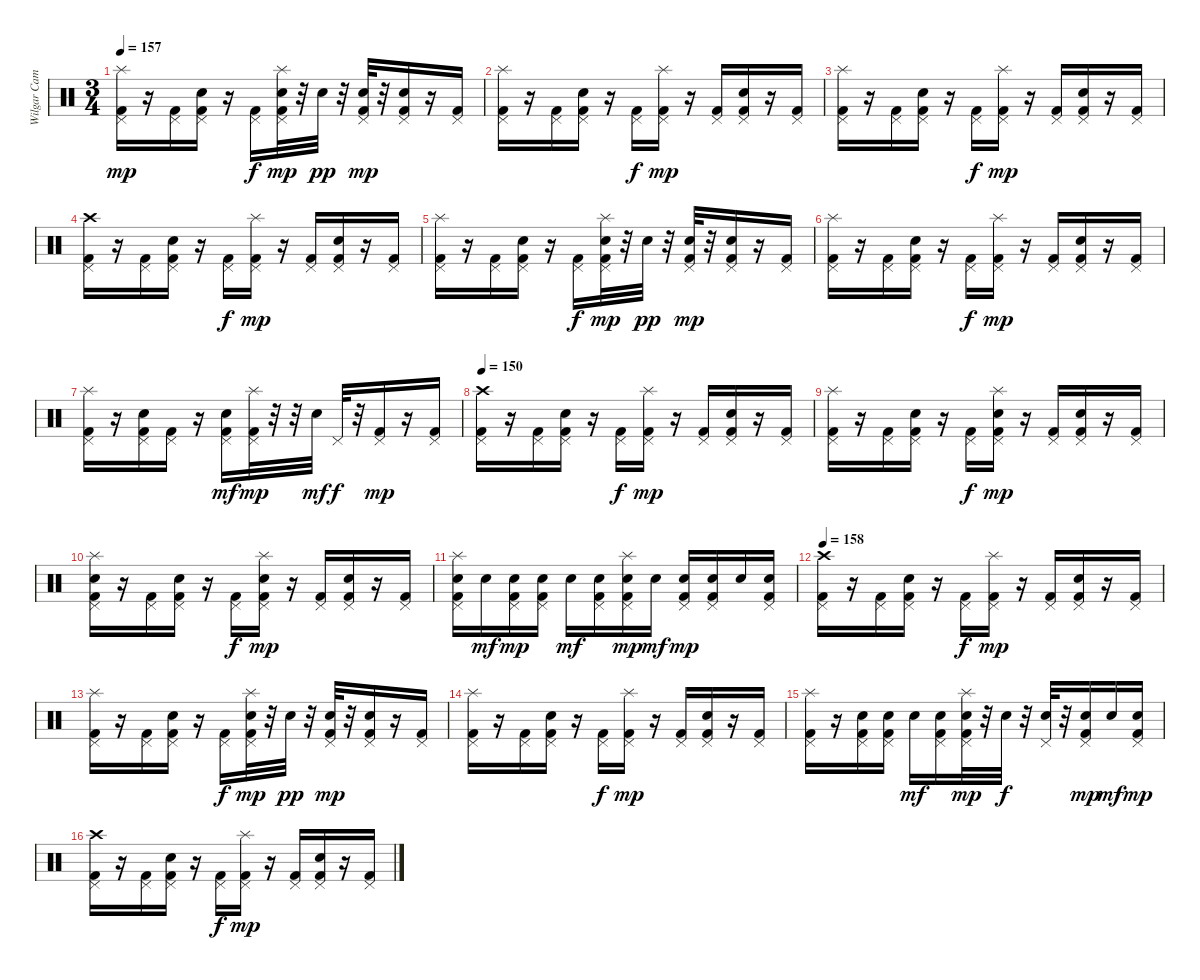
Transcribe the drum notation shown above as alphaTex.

\track ("Wilgar Campbell" "Wilgar Cam") {instrument percussion}
\staff {score}
\articulation defaults
\ts (3 4)
\tempo 157
\clef neutral
\ks c
("Splash (hit)" "Pedal Hi-Hat (hit)" "Kick (hit) 2").16{dy mp} r.16 ("Pedal Hi-Hat (hit)" "Kick (hit) 2").16 ("Snare (hit) 2" "Pedal Hi-Hat (hit)" "Kick (hit) 2").16 r.16 ("Pedal Hi-Hat (hit)" "Kick (hit) 2").16{dy f} ("Splash (hit)" "Pedal Hi-Hat (hit)" "Electric Snare (hit)" "Kick (hit) 2").32{dy mp} r.32 "Electric Snare (hit)".32{dy pp} r.32 ("Pedal Hi-Hat (hit)" "Electric Snare (hit)" "Kick (hit) 2").32{dy mp} r.32 ("Snare (hit) 2" "Pedal Hi-Hat (hit)" "Kick (hit) 2").16 r.16 ("Pedal Hi-Hat (hit)" "Kick (hit) 2").16 |
("Splash (hit)" "Pedal Hi-Hat (hit)" "Kick (hit) 2").16 r.16 ("Pedal Hi-Hat (hit)" "Kick (hit) 2").16 ("Snare (hit) 2" "Pedal Hi-Hat (hit)" "Kick (hit) 2").16 r.16 ("Pedal Hi-Hat (hit)" "Kick (hit) 2").16{dy f} ("Splash (hit)" "Pedal Hi-Hat (hit)" "Kick (hit) 2").16{dy mp} r.16 ("Pedal Hi-Hat (hit)" "Kick (hit) 2").16 ("Snare (hit) 2" "Pedal Hi-Hat (hit)" "Kick (hit) 2").16 r.16 ("Pedal Hi-Hat (hit)" "Kick (hit) 2").16 |
("Splash (hit)" "Pedal Hi-Hat (hit)" "Kick (hit) 2").16 r.16 ("Pedal Hi-Hat (hit)" "Kick (hit) 2").16 ("Snare (hit) 2" "Pedal Hi-Hat (hit)" "Kick (hit) 2").16 r.16 ("Pedal Hi-Hat (hit)" "Kick (hit) 2").16{dy f} ("Splash (hit)" "Pedal Hi-Hat (hit)" "Kick (hit) 2").16{dy mp} r.16 ("Pedal Hi-Hat (hit)" "Kick (hit) 2").16 ("Snare (hit) 2" "Pedal Hi-Hat (hit)" "Kick (hit) 2").16 r.16 ("Pedal Hi-Hat (hit)" "Kick (hit) 2").16 |
("Crash high (hit)" "Pedal Hi-Hat (hit)" "Kick (hit) 2").16 r.16 ("Pedal Hi-Hat (hit)" "Kick (hit) 2").16 ("Snare (hit) 2" "Pedal Hi-Hat (hit)" "Kick (hit) 2").16 r.16 ("Pedal Hi-Hat (hit)" "Kick (hit) 2").16{dy f} ("Splash (hit)" "Pedal Hi-Hat (hit)" "Kick (hit) 2").16{dy mp} r.16 ("Pedal Hi-Hat (hit)" "Kick (hit) 2").16 ("Snare (hit) 2" "Pedal Hi-Hat (hit)" "Kick (hit) 2").16 r.16 ("Pedal Hi-Hat (hit)" "Kick (hit) 2").16 |
("Splash (hit)" "Pedal Hi-Hat (hit)" "Kick (hit) 2").16 r.16 ("Pedal Hi-Hat (hit)" "Kick (hit) 2").16 ("Snare (hit) 2" "Pedal Hi-Hat (hit)" "Kick (hit) 2").16 r.16 ("Pedal Hi-Hat (hit)" "Kick (hit) 2").16{dy f} ("Splash (hit)" "Pedal Hi-Hat (hit)" "Electric Snare (hit)" "Kick (hit) 2").32{dy mp} r.32 "Electric Snare (hit)".32{dy pp} r.32 ("Pedal Hi-Hat (hit)" "Electric Snare (hit)" "Kick (hit) 2").32{dy mp} r.32 ("Snare (hit) 2" "Pedal Hi-Hat (hit)" "Kick (hit) 2").16 r.16 ("Pedal Hi-Hat (hit)" "Kick (hit) 2").16 |
("Splash (hit)" "Pedal Hi-Hat (hit)" "Kick (hit) 2").16 r.16 ("Pedal Hi-Hat (hit)" "Kick (hit) 2").16 ("Snare (hit) 2" "Pedal Hi-Hat (hit)" "Kick (hit) 2").16 r.16 ("Pedal Hi-Hat (hit)" "Kick (hit) 2").16{dy f} ("Splash (hit)" "Pedal Hi-Hat (hit)" "Kick (hit) 2").16{dy mp} r.16 ("Pedal Hi-Hat (hit)" "Kick (hit) 2").16 ("Snare (hit) 2" "Pedal Hi-Hat (hit)" "Kick (hit) 2").16 r.16 ("Pedal Hi-Hat (hit)" "Kick (hit) 2").16 |
("Splash (hit)" "Pedal Hi-Hat (hit)" "Kick (hit) 2").16 r.16 ("Pedal Hi-Hat (hit)" "Electric Snare (hit)" "Kick (hit) 2").16 ("Pedal Hi-Hat (hit)" "Kick (hit) 2").16 r.16 ("Pedal Hi-Hat (hit)" "Electric Snare (hit)" "Kick (hit) 2").16{dy mf} ("Splash (hit)" "Pedal Hi-Hat (hit)" "Kick (hit) 2").32{dy mp} r.32 r.32 "Electric Snare (hit)".32{dy mf} "Pedal Hi-Hat (hit)".32{dy f} r.32 ("Pedal Hi-Hat (hit)" "Kick (hit) 2").16{dy mp} r.16 ("Pedal Hi-Hat (hit)" "Kick (hit) 2").16 |
\tempo 150
("Crash high (hit)" "Pedal Hi-Hat (hit)" "Kick (hit) 2").16 r.16 ("Pedal Hi-Hat (hit)" "Kick (hit) 2").16 ("Snare (hit) 2" "Pedal Hi-Hat (hit)" "Kick (hit) 2").16 r.16 ("Pedal Hi-Hat (hit)" "Kick (hit) 2").16{dy f} ("Splash (hit)" "Pedal Hi-Hat (hit)" "Kick (hit) 2").16{dy mp} r.16 ("Pedal Hi-Hat (hit)" "Kick (hit) 2").16 ("Snare (hit) 2" "Pedal Hi-Hat (hit)" "Kick (hit) 2").16 r.16 ("Pedal Hi-Hat (hit)" "Kick (hit) 2").16 |
("Splash (hit)" "Pedal Hi-Hat (hit)" "Kick (hit) 2").16 r.16 ("Pedal Hi-Hat (hit)" "Kick (hit) 2").16 ("Snare (hit) 2" "Pedal Hi-Hat (hit)" "Kick (hit) 2").16 r.16 ("Pedal Hi-Hat (hit)" "Kick (hit) 2").16{dy f} ("Splash (hit)" "Snare (hit) 2" "Pedal Hi-Hat (hit)" "Kick (hit) 2").16{dy mp} r.16 ("Pedal Hi-Hat (hit)" "Kick (hit) 2").16 ("Snare (hit) 2" "Pedal Hi-Hat (hit)" "Kick (hit) 2").16 r.16 ("Pedal Hi-Hat (hit)" "Kick (hit) 2").16 |
("Splash (hit)" "Snare (hit) 2" "Pedal Hi-Hat (hit)" "Kick (hit) 2").16 r.16 ("Pedal Hi-Hat (hit)" "Kick (hit) 2").16 ("Snare (hit) 2" "Pedal Hi-Hat (hit)" "Kick (hit) 2").16 r.16 ("Pedal Hi-Hat (hit)" "Kick (hit) 2").16{dy f} ("Splash (hit)" "Snare (hit) 2" "Pedal Hi-Hat (hit)" "Kick (hit) 2").16{dy mp} r.16 ("Pedal Hi-Hat (hit)" "Kick (hit) 2").16 ("Snare (hit) 2" "Pedal Hi-Hat (hit)" "Kick (hit) 2").16 r.16 ("Pedal Hi-Hat (hit)" "Kick (hit) 2").16 |
("Splash (hit)" "Snare (hit) 2" "Pedal Hi-Hat (hit)" "Kick (hit) 2").16 "Snare (hit) 2".16{dy mf} ("Snare (hit) 2" "Pedal Hi-Hat (hit)" "Kick (hit) 2").16{dy mp} ("Electric Snare (hit)" "Pedal Hi-Hat (hit)" "Kick (hit) 2").16 "Electric Snare (hit)".16{dy mf} ("Electric Snare (hit)" "Pedal Hi-Hat (hit)" "Kick (hit) 2").16 ("Splash (hit)" "Snare (hit) 2" "Pedal Hi-Hat (hit)" "Kick (hit) 2").16{dy mp} "Snare (hit) 2".16{dy mf} ("Snare (hit) 2" "Pedal Hi-Hat (hit)" "Kick (hit) 2").16{dy mp} ("Snare (hit) 2" "Pedal Hi-Hat (hit)" "Kick (hit) 2").16 "Snare (hit) 2".16 ("Snare (hit) 2" "Pedal Hi-Hat (hit)" "Kick (hit) 2").16 |
\tempo 158
("Crash high (hit)" "Pedal Hi-Hat (hit)" "Kick (hit) 2").16 r.16 ("Pedal Hi-Hat (hit)" "Kick (hit) 2").16 ("Snare (hit) 2" "Pedal Hi-Hat (hit)" "Kick (hit) 2").16 r.16 ("Pedal Hi-Hat (hit)" "Kick (hit) 2").16{dy f} ("Splash (hit)" "Pedal Hi-Hat (hit)" "Kick (hit) 2").16{dy mp} r.16 ("Pedal Hi-Hat (hit)" "Kick (hit) 2").16 ("Snare (hit) 2" "Pedal Hi-Hat (hit)" "Kick (hit) 2").16 r.16 ("Pedal Hi-Hat (hit)" "Kick (hit) 2").16 |
("Splash (hit)" "Pedal Hi-Hat (hit)" "Kick (hit) 2").16 r.16 ("Pedal Hi-Hat (hit)" "Kick (hit) 2").16 ("Snare (hit) 2" "Pedal Hi-Hat (hit)" "Kick (hit) 2").16 r.16 ("Pedal Hi-Hat (hit)" "Kick (hit) 2").16{dy f} ("Splash (hit)" "Pedal Hi-Hat (hit)" "Electric Snare (hit)" "Kick (hit) 2").32{dy mp} r.32 "Electric Snare (hit)".32{dy pp} r.32 ("Pedal Hi-Hat (hit)" "Electric Snare (hit)" "Kick (hit) 2").32{dy mp} r.32 ("Snare (hit) 2" "Pedal Hi-Hat (hit)" "Kick (hit) 2").16 r.16 ("Pedal Hi-Hat (hit)" "Kick (hit) 2").16 |
("Splash (hit)" "Pedal Hi-Hat (hit)" "Kick (hit) 2").16 r.16 ("Pedal Hi-Hat (hit)" "Kick (hit) 2").16 ("Snare (hit) 2" "Pedal Hi-Hat (hit)" "Kick (hit) 2").16 r.16 ("Pedal Hi-Hat (hit)" "Kick (hit) 2").16{dy f} ("Splash (hit)" "Pedal Hi-Hat (hit)" "Kick (hit) 2").16{dy mp} r.16 ("Pedal Hi-Hat (hit)" "Kick (hit) 2").16 ("Snare (hit) 2" "Pedal Hi-Hat (hit)" "Kick (hit) 2").16 r.16 ("Pedal Hi-Hat (hit)" "Kick (hit) 2").16 |
("Splash (hit)" "Pedal Hi-Hat (hit)" "Kick (hit) 2").16 r.16 ("Pedal Hi-Hat (hit)" "Electric Snare (hit)" "Kick (hit) 2").16 ("Pedal Hi-Hat (hit)" "Snare (hit) 2" "Kick (hit) 2").16 "Snare (hit) 2".16{dy mf} ("Pedal Hi-Hat (hit)" "Snare (hit) 2" "Kick (hit) 2").16 ("Splash (hit)" "Pedal Hi-Hat (hit)" "Snare (hit) 2" "Kick (hit) 2").32{dy mp} r.32 "Electric Snare (hit)".32{dy f} r.32 ("Pedal Hi-Hat (hit)" "Snare (hit) 2").32 r.32 ("Pedal Hi-Hat (hit)" "Snare (hit) 2" "Kick (hit) 2").16{dy mp} "Snare (hit) 2".16{dy mf} ("Pedal Hi-Hat (hit)" "Snare (hit) 2" "Kick (hit) 2").16{dy mp} |
("Crash high (hit)" "Pedal Hi-Hat (hit)" "Kick (hit) 2").16 r.16 ("Pedal Hi-Hat (hit)" "Kick (hit) 2").16 ("Snare (hit) 2" "Pedal Hi-Hat (hit)" "Kick (hit) 2").16 r.16 ("Pedal Hi-Hat (hit)" "Kick (hit) 2").16{dy f} ("Splash (hit)" "Pedal Hi-Hat (hit)" "Kick (hit) 2").16{dy mp} r.16 ("Pedal Hi-Hat (hit)" "Kick (hit) 2").16 ("Snare (hit) 2" "Pedal Hi-Hat (hit)" "Kick (hit) 2").16 r.16 ("Pedal Hi-Hat (hit)" "Kick (hit) 2").16
